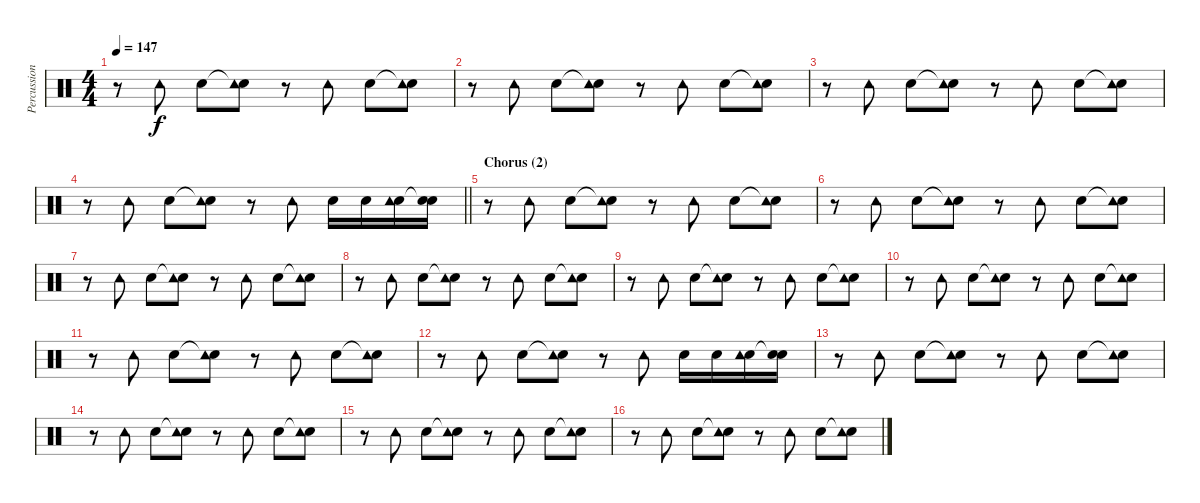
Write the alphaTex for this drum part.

\track ("Percussion" "Percussion") {instrument percussion}
\staff {score}
\articulation defaults
\ts (4 4)
\tempo 147
\clef neutral
\ks aminor
r.8{dy f} "Tambourine (hit)".8 "Hand Clap (hit)".8 ("Snare (hit)"{t} "Tambourine (hit)").8 r.8 "Tambourine (hit)".8 "Hand Clap (hit)".8 ("Snare (hit)"{t} "Tambourine (hit)").8 |
r.8 "Tambourine (hit)".8 "Hand Clap (hit)".8 ("Snare (hit)"{t} "Tambourine (hit)").8 r.8 "Tambourine (hit)".8 "Hand Clap (hit)".8 ("Snare (hit)"{t} "Tambourine (hit)").8 |
r.8 "Tambourine (hit)".8 "Hand Clap (hit)".8 ("Snare (hit)"{t} "Tambourine (hit)").8 r.8 "Tambourine (hit)".8 "Hand Clap (hit)".8 ("Snare (hit)"{t} "Tambourine (hit)").8 |
\barLineRight lightlight
r.8 "Tambourine (hit)".8 "Hand Clap (hit)".8 ("Snare (hit)"{t} "Tambourine (hit)").8 r.8 "Tambourine (hit)".8 "Hand Clap (hit)".16 "Hand Clap (hit)".16 ("Hand Clap (hit)" "Tambourine (hit)").16 ("Hand Clap (hit)" "Snare (hit)"{t}).16 |
\section ("" "Chorus (2)")
r.8 "Tambourine (hit)".8 "Hand Clap (hit)".8 ("Snare (hit)"{t} "Tambourine (hit)").8 r.8 "Tambourine (hit)".8 "Hand Clap (hit)".8 ("Snare (hit)"{t} "Tambourine (hit)").8 |
r.8 "Tambourine (hit)".8 "Hand Clap (hit)".8 ("Snare (hit)"{t} "Tambourine (hit)").8 r.8 "Tambourine (hit)".8 "Hand Clap (hit)".8 ("Snare (hit)"{t} "Tambourine (hit)").8 |
r.8 "Tambourine (hit)".8 "Hand Clap (hit)".8 ("Snare (hit)"{t} "Tambourine (hit)").8 r.8 "Tambourine (hit)".8 "Hand Clap (hit)".8 ("Snare (hit)"{t} "Tambourine (hit)").8 |
r.8 "Tambourine (hit)".8 "Hand Clap (hit)".8 ("Snare (hit)"{t} "Tambourine (hit)").8 r.8 "Tambourine (hit)".8 "Hand Clap (hit)".8 ("Snare (hit)"{t} "Tambourine (hit)").8 |
r.8 "Tambourine (hit)".8 "Hand Clap (hit)".8 ("Snare (hit)"{t} "Tambourine (hit)").8 r.8 "Tambourine (hit)".8 "Hand Clap (hit)".8 ("Snare (hit)"{t} "Tambourine (hit)").8 |
r.8 "Tambourine (hit)".8 "Hand Clap (hit)".8 ("Snare (hit)"{t} "Tambourine (hit)").8 r.8 "Tambourine (hit)".8 "Hand Clap (hit)".8 ("Snare (hit)"{t} "Tambourine (hit)").8 |
r.8 "Tambourine (hit)".8 "Hand Clap (hit)".8 ("Snare (hit)"{t} "Tambourine (hit)").8 r.8 "Tambourine (hit)".8 "Hand Clap (hit)".8 ("Snare (hit)"{t} "Tambourine (hit)").8 |
r.8 "Tambourine (hit)".8 "Hand Clap (hit)".8 ("Snare (hit)"{t} "Tambourine (hit)").8 r.8 "Tambourine (hit)".8 "Hand Clap (hit)".16 "Hand Clap (hit)".16 ("Hand Clap (hit)" "Tambourine (hit)").16 ("Hand Clap (hit)" "Snare (hit)"{t}).16 |
r.8 "Tambourine (hit)".8 "Hand Clap (hit)".8 ("Snare (hit)"{t} "Tambourine (hit)").8 r.8 "Tambourine (hit)".8 "Hand Clap (hit)".8 ("Snare (hit)"{t} "Tambourine (hit)").8 |
r.8 "Tambourine (hit)".8 "Hand Clap (hit)".8 ("Snare (hit)"{t} "Tambourine (hit)").8 r.8 "Tambourine (hit)".8 "Hand Clap (hit)".8 ("Snare (hit)"{t} "Tambourine (hit)").8 |
r.8 "Tambourine (hit)".8 "Hand Clap (hit)".8 ("Snare (hit)"{t} "Tambourine (hit)").8 r.8 "Tambourine (hit)".8 "Hand Clap (hit)".8 ("Snare (hit)"{t} "Tambourine (hit)").8 |
r.8 "Tambourine (hit)".8 "Hand Clap (hit)".8 ("Snare (hit)"{t} "Tambourine (hit)").8 r.8 "Tambourine (hit)".8 "Hand Clap (hit)".8 ("Snare (hit)"{t} "Tambourine (hit)").8
